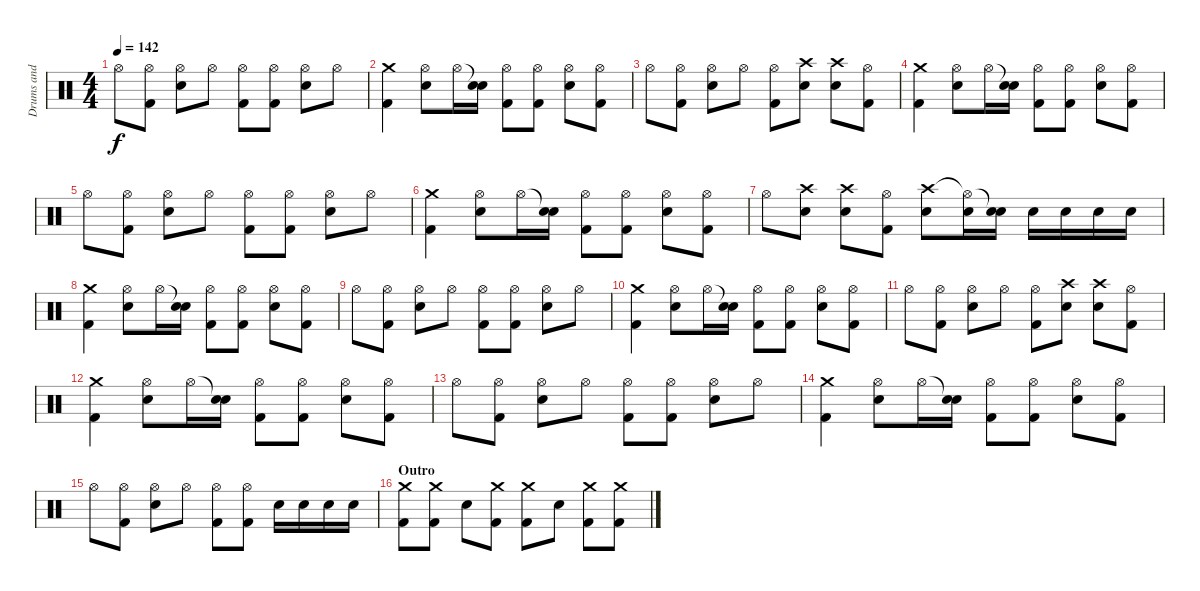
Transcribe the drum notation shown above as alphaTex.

\track ("Drums and Percussion" "Drums and ") {instrument percussion}
\staff {score}
\articulation defaults
\ts (4 4)
\tempo 142
\clef neutral
\ks c "Hi-Hat (open)".8{dy f}
("Hi-Hat (open)" "Kick (hit) 2").8 ("Hi-Hat (open)" "Electric Snare (hit)").8 "Hi-Hat (open)".8 ("Hi-Hat (open)" "Kick (hit) 2").8 ("Hi-Hat (open)" "Kick (hit) 2").8 ("Hi-Hat (open)" "Electric Snare (hit)").8 "Hi-Hat (open)".8 |
("Crash medium (hit)" "Kick (hit) 2").4 ("Hi-Hat (open)" "Electric Snare (hit)").8 "Hi-Hat (open)".16 ("Snare (hit)"{t} "Electric Snare (hit)").16 ("Hi-Hat (open)" "Kick (hit) 2").8 ("Hi-Hat (open)" "Kick (hit) 2").8 ("Hi-Hat (open)" "Electric Snare (hit)").8 ("Hi-Hat (open)" "Kick (hit) 2").8 |
"Hi-Hat (open)".8 ("Hi-Hat (open)" "Kick (hit) 2").8 ("Hi-Hat (open)" "Electric Snare (hit)").8 "Hi-Hat (open)".8 ("Hi-Hat (open)" "Kick (hit) 2").8 ("Crash high (hit)" "Electric Snare (hit)").8 ("Crash high (hit)" "Electric Snare (hit)").8 ("Hi-Hat (open)" "Kick (hit) 2").8 |
("Crash medium (hit)" "Kick (hit) 2").4 ("Hi-Hat (open)" "Electric Snare (hit)").8 "Hi-Hat (open)".16 ("Snare (hit)"{t} "Electric Snare (hit)").16 ("Hi-Hat (open)" "Kick (hit) 2").8 ("Hi-Hat (open)" "Kick (hit) 2").8 ("Hi-Hat (open)" "Electric Snare (hit)").8 ("Hi-Hat (open)" "Kick (hit) 2").8 |
"Hi-Hat (open)".8 ("Hi-Hat (open)" "Kick (hit) 2").8 ("Hi-Hat (open)" "Electric Snare (hit)").8 "Hi-Hat (open)".8 ("Hi-Hat (open)" "Kick (hit) 2").8 ("Hi-Hat (open)" "Kick (hit) 2").8 ("Hi-Hat (open)" "Electric Snare (hit)").8 "Hi-Hat (open)".8 |
("Crash medium (hit)" "Kick (hit) 2").4 ("Hi-Hat (open)" "Electric Snare (hit)").8 "Hi-Hat (open)".16 ("Snare (hit)"{t} "Electric Snare (hit)").16 ("Hi-Hat (open)" "Kick (hit) 2").8 ("Hi-Hat (open)" "Kick (hit) 2").8 ("Hi-Hat (open)" "Electric Snare (hit)").8 ("Hi-Hat (open)" "Kick (hit) 2").8 |
"Hi-Hat (open)".8 ("Crash high (hit)" "Electric Snare (hit)").8 ("Crash high (hit)" "Electric Snare (hit)").8 ("Hi-Hat (open)" "Kick (hit) 2").8 ("Crash high (hit)" "Electric Snare (hit)").8 ("Hi-Hat (open)"{t} "Electric Snare (hit)").16 ("Snare (hit)"{t} "Electric Snare (hit)").16 "Electric Snare (hit)".16 "Electric Snare (hit)".16 "Electric Snare (hit)".16 "Electric Snare (hit)".16 |
("Crash medium (hit)" "Kick (hit) 2").4 ("Hi-Hat (open)" "Electric Snare (hit)").8 "Hi-Hat (open)".16 ("Snare (hit)"{t} "Electric Snare (hit)").16 ("Hi-Hat (open)" "Kick (hit) 2").8 ("Hi-Hat (open)" "Kick (hit) 2").8 ("Hi-Hat (open)" "Electric Snare (hit)").8 ("Hi-Hat (open)" "Kick (hit) 2").8 |
"Hi-Hat (open)".8 ("Hi-Hat (open)" "Kick (hit) 2").8 ("Hi-Hat (open)" "Electric Snare (hit)").8 "Hi-Hat (open)".8 ("Hi-Hat (open)" "Kick (hit) 2").8 ("Hi-Hat (open)" "Kick (hit) 2").8 ("Hi-Hat (open)" "Electric Snare (hit)").8 "Hi-Hat (open)".8 |
("Crash medium (hit)" "Kick (hit) 2").4 ("Hi-Hat (open)" "Electric Snare (hit)").8 "Hi-Hat (open)".16 ("Snare (hit)"{t} "Electric Snare (hit)").16 ("Hi-Hat (open)" "Kick (hit) 2").8 ("Hi-Hat (open)" "Kick (hit) 2").8 ("Hi-Hat (open)" "Electric Snare (hit)").8 ("Hi-Hat (open)" "Kick (hit) 2").8 |
"Hi-Hat (open)".8 ("Hi-Hat (open)" "Kick (hit) 2").8 ("Hi-Hat (open)" "Electric Snare (hit)").8 "Hi-Hat (open)".8 ("Hi-Hat (open)" "Kick (hit) 2").8 ("Crash high (hit)" "Electric Snare (hit)").8 ("Crash high (hit)" "Electric Snare (hit)").8 ("Hi-Hat (open)" "Kick (hit) 2").8 |
("Crash medium (hit)" "Kick (hit) 2").4 ("Hi-Hat (open)" "Electric Snare (hit)").8 "Hi-Hat (open)".16 ("Snare (hit)"{t} "Electric Snare (hit)").16 ("Hi-Hat (open)" "Kick (hit) 2").8 ("Hi-Hat (open)" "Kick (hit) 2").8 ("Hi-Hat (open)" "Electric Snare (hit)").8 ("Hi-Hat (open)" "Kick (hit) 2").8 |
"Hi-Hat (open)".8 ("Hi-Hat (open)" "Kick (hit) 2").8 ("Hi-Hat (open)" "Electric Snare (hit)").8 "Hi-Hat (open)".8 ("Hi-Hat (open)" "Kick (hit) 2").8 ("Hi-Hat (open)" "Kick (hit) 2").8 ("Hi-Hat (open)" "Electric Snare (hit)").8 "Hi-Hat (open)".8 |
("Crash medium (hit)" "Kick (hit) 2").4 ("Hi-Hat (open)" "Electric Snare (hit)").8 "Hi-Hat (open)".16 ("Snare (hit)"{t} "Electric Snare (hit)").16 ("Hi-Hat (open)" "Kick (hit) 2").8 ("Hi-Hat (open)" "Kick (hit) 2").8 ("Hi-Hat (open)" "Electric Snare (hit)").8 ("Hi-Hat (open)" "Kick (hit) 2").8 |
"Hi-Hat (open)".8 ("Hi-Hat (open)" "Kick (hit) 2").8 ("Hi-Hat (open)" "Electric Snare (hit)").8 "Hi-Hat (open)".8 ("Hi-Hat (open)" "Kick (hit) 2").8 ("Hi-Hat (open)" "Kick (hit) 2").8 "Electric Snare (hit)".16 "Electric Snare (hit)".16 "Electric Snare (hit)".16 "Electric Snare (hit)".16 |
\section ("" "Outro")
("Crash medium (hit)" "Kick (hit) 2").8 ("Crash medium (hit)" "Kick (hit) 2").8 "Electric Snare (hit)".8 ("Crash medium (hit)" "Kick (hit) 2").8 ("Crash medium (hit)" "Kick (hit) 2").8 "Electric Snare (hit)".8 ("Crash medium (hit)" "Kick (hit) 2").8 ("Crash medium (hit)" "Kick (hit) 2").8
